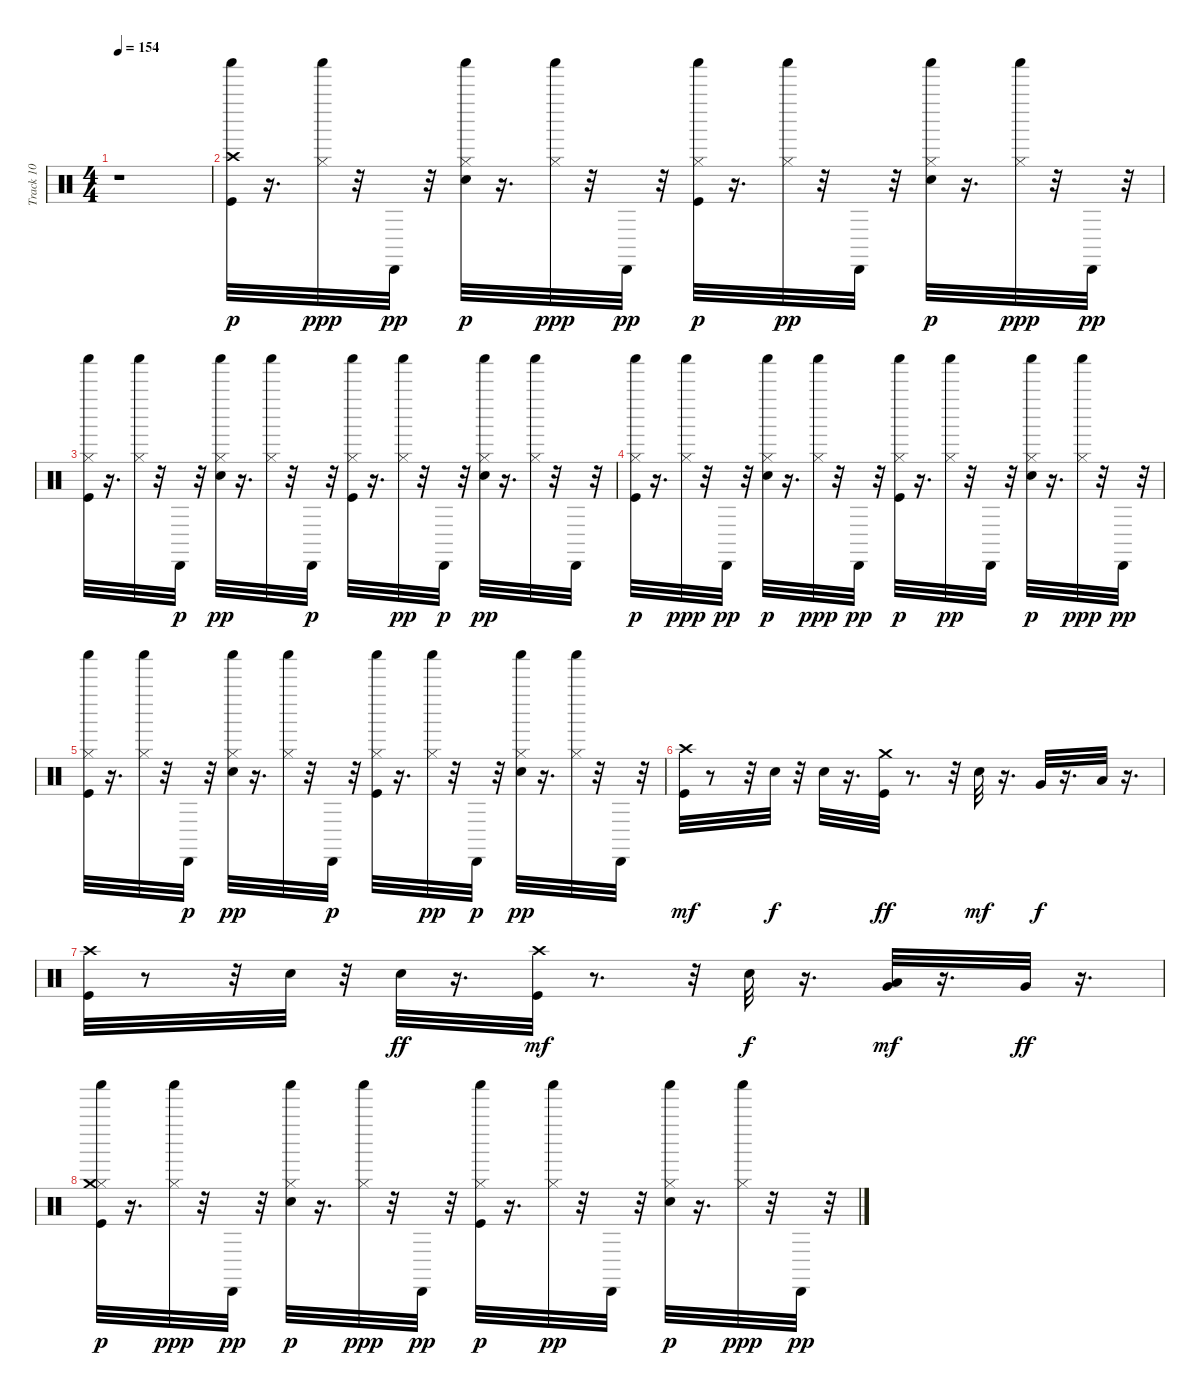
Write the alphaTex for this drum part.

\track ("Track 10" "Track 10") {instrument percussion}
\staff {score}
\articulation defaults
\ts (4 4)
\tempo 154
\clef neutral
\ks c
r.1{dy p} |
("Kick (hit)" "Crash high (hit)" "Shaker (hit)").32 r.16{d} ("Hi-Hat (closed)" "Shaker (hit)").32{dy ppp} r.32 "Cabasa (hit)".32{dy pp} r.32 ("Electric Snare (hit)" "Hi-Hat (closed)" "Shaker (hit)").32{dy p} r.16{d} ("Hi-Hat (closed)" "Shaker (hit)").32{dy ppp} r.32 "Cabasa (hit)".32{dy pp} r.32 ("Kick (hit)" "Hi-Hat (closed)" "Shaker (hit)").32{dy p} r.16{d} ("Hi-Hat (closed)" "Shaker (hit)").32{dy pp} r.32 "Cabasa (hit)".32 r.32 ("Electric Snare (hit)" "Hi-Hat (closed)" "Shaker (hit)").32{dy p} r.16{d} ("Hi-Hat (closed)" "Shaker (hit)").32{dy ppp} r.32 "Cabasa (hit)".32{dy pp} r.32 |
("Kick (hit)" "Hi-Hat (closed)" "Shaker (hit)").32 r.16{d} ("Hi-Hat (closed)" "Shaker (hit)").32 r.32 "Cabasa (hit)".32{dy p} r.32 ("Electric Snare (hit)" "Hi-Hat (closed)" "Shaker (hit)").32{dy pp} r.16{d} ("Hi-Hat (closed)" "Shaker (hit)").32 r.32 "Cabasa (hit)".32{dy p} r.32 ("Kick (hit)" "Hi-Hat (closed)" "Shaker (hit)").32 r.16{d} ("Hi-Hat (closed)" "Shaker (hit)").32{dy pp} r.32 "Cabasa (hit)".32{dy p} r.32 ("Electric Snare (hit)" "Hi-Hat (closed)" "Shaker (hit)").32{dy pp} r.16{d} ("Hi-Hat (closed)" "Shaker (hit)").32 r.32 "Cabasa (hit)".32 r.32 |
("Kick (hit)" "Hi-Hat (closed)" "Shaker (hit)").32{dy p} r.16{d} ("Hi-Hat (closed)" "Shaker (hit)").32{dy ppp} r.32 "Cabasa (hit)".32{dy pp} r.32 ("Electric Snare (hit)" "Hi-Hat (closed)" "Shaker (hit)").32{dy p} r.16{d} ("Hi-Hat (closed)" "Shaker (hit)").32{dy ppp} r.32 "Cabasa (hit)".32{dy pp} r.32 ("Kick (hit)" "Hi-Hat (closed)" "Shaker (hit)").32{dy p} r.16{d} ("Hi-Hat (closed)" "Shaker (hit)").32{dy pp} r.32 "Cabasa (hit)".32 r.32 ("Electric Snare (hit)" "Hi-Hat (closed)" "Shaker (hit)").32{dy p} r.16{d} ("Hi-Hat (closed)" "Shaker (hit)").32{dy ppp} r.32 "Cabasa (hit)".32{dy pp} r.32 |
("Kick (hit)" "Hi-Hat (closed)" "Shaker (hit)").32 r.16{d} ("Hi-Hat (closed)" "Shaker (hit)").32 r.32 "Cabasa (hit)".32{dy p} r.32 ("Electric Snare (hit)" "Hi-Hat (closed)" "Shaker (hit)").32{dy pp} r.16{d} ("Hi-Hat (closed)" "Shaker (hit)").32 r.32 "Cabasa (hit)".32{dy p} r.32 ("Kick (hit)" "Hi-Hat (closed)" "Shaker (hit)").32 r.16{d} ("Hi-Hat (closed)" "Shaker (hit)").32{dy pp} r.32 "Cabasa (hit)".32{dy p} r.32 ("Electric Snare (hit)" "Hi-Hat (closed)" "Shaker (hit)").32{dy pp} r.16{d} ("Hi-Hat (closed)" "Shaker (hit)").32 r.32 "Cabasa (hit)".32 r.32 |
("Kick (hit)" "Crash high (hit)").32{dy mf} r.8 r.32 "Electric Snare (hit)".32{dy f} r.32 "Electric Snare (hit)".32 r.16{d} ("Kick (hit)" "Crash medium (hit)").32{dy ff} r.8{d} r.32 "Electric Snare (hit)".32{dy mf} r.16{d} "Very Low Tom (hit)".32{dy f} r.16{d} "Low Tom (hit)".32 r.16{d} |
("Kick (hit)" "Crash high (hit)").32 r.8 r.32 "Electric Snare (hit)".32 r.32 "Electric Snare (hit)".32{dy ff} r.16{d} ("Kick (hit)" "Crash high (hit)").32{dy mf} r.8{d} r.32 "Electric Snare (hit)".32{dy f} r.16{d} ("Very Low Tom (hit)" "Low Tom (hit)").32{dy mf} r.16{d} "Very Low Tom (hit)".32{dy ff} r.16{d} |
("Kick (hit)" "Hi-Hat (closed)" "Crash medium (hit)" "Shaker (hit)").32{dy p} r.16{d} ("Hi-Hat (closed)" "Shaker (hit)").32{dy ppp} r.32 "Cabasa (hit)".32{dy pp} r.32 ("Electric Snare (hit)" "Hi-Hat (closed)" "Shaker (hit)").32{dy p} r.16{d} ("Hi-Hat (closed)" "Shaker (hit)").32{dy ppp} r.32 "Cabasa (hit)".32{dy pp} r.32 ("Kick (hit)" "Hi-Hat (closed)" "Shaker (hit)").32{dy p} r.16{d} ("Hi-Hat (closed)" "Shaker (hit)").32{dy pp} r.32 "Cabasa (hit)".32 r.32 ("Electric Snare (hit)" "Hi-Hat (closed)" "Shaker (hit)").32{dy p} r.16{d} ("Hi-Hat (closed)" "Shaker (hit)").32{dy ppp} r.32 "Cabasa (hit)".32{dy pp} r.32
